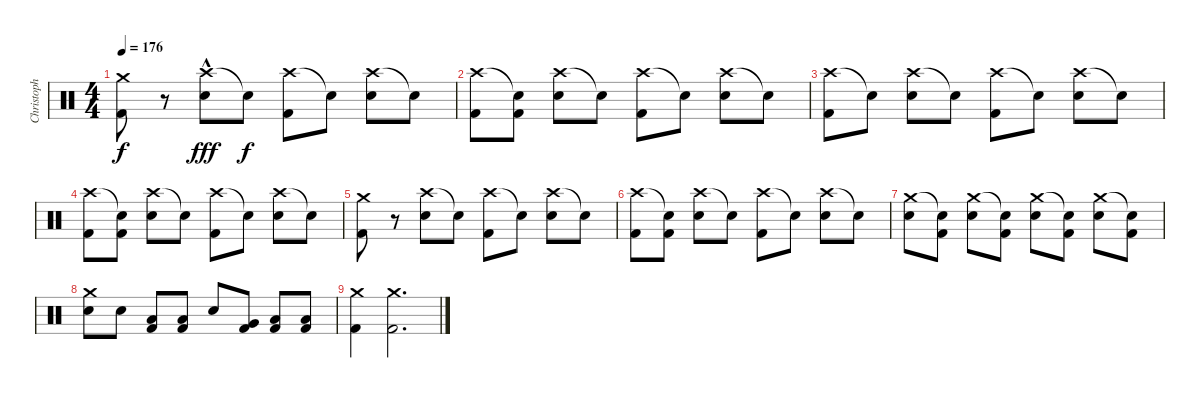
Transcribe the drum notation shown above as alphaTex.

\track ("Christoph" "Christoph") {instrument percussion}
\staff {score}
\articulation defaults
\ts (4 4)
\tempo 176
\clef neutral
\ks c
("Crash medium (hit)" "Kick (hit) 2").8{dy f} r.8 ("Crash high (hit)"{hac} "Snare (hit) 2").8{dy fff} "Snare (hit)"{t}.8{dy f} ("Crash high (hit)" "Kick (hit) 2").8 "Snare (hit)"{t}.8 ("Crash high (hit)" "Snare (hit) 2").8 "Snare (hit)"{t}.8 |
("Crash high (hit)" "Kick (hit) 2").8 ("Snare (hit)"{t} "Kick (hit) 2").8 ("Crash high (hit)" "Snare (hit) 2").8 "Snare (hit)"{t}.8 ("Crash high (hit)" "Kick (hit) 2").8 "Snare (hit)"{t}.8 ("Crash high (hit)" "Snare (hit) 2").8 "Snare (hit)"{t}.8 |
("Crash high (hit)" "Kick (hit) 2").8 "Snare (hit)"{t}.8 ("Crash high (hit)" "Snare (hit) 2").8 "Snare (hit)"{t}.8 ("Crash high (hit)" "Kick (hit) 2").8 "Snare (hit)"{t}.8 ("Crash high (hit)" "Snare (hit) 2").8 "Snare (hit)"{t}.8 |
("Crash high (hit)" "Kick (hit) 2").8 ("Snare (hit)"{t} "Kick (hit) 2").8 ("Crash high (hit)" "Snare (hit) 2").8 "Snare (hit)"{t}.8 ("Crash high (hit)" "Kick (hit) 2").8 "Snare (hit)"{t}.8 ("Crash high (hit)" "Snare (hit) 2").8 "Snare (hit)"{t}.8 |
("Crash medium (hit)" "Kick (hit) 2").8 r.8 ("Crash high (hit)" "Snare (hit) 2").8 "Snare (hit)"{t}.8 ("Crash high (hit)" "Kick (hit) 2").8 "Snare (hit)"{t}.8 ("Crash high (hit)" "Snare (hit) 2").8 "Snare (hit)"{t}.8 |
("Crash high (hit)" "Kick (hit) 2").8 ("Snare (hit)"{t} "Kick (hit) 2").8 ("Crash high (hit)" "Snare (hit) 2").8 "Snare (hit)"{t}.8 ("Crash high (hit)" "Kick (hit) 2").8 "Snare (hit)"{t}.8 ("Crash high (hit)" "Snare (hit) 2").8 "Snare (hit)"{t}.8 |
("Crash medium (hit)" "Snare (hit) 2").8 ("Snare (hit)"{t} "Kick (hit) 2").8 ("Crash medium (hit)" "Snare (hit) 2").8 ("Snare (hit)"{t} "Kick (hit) 2").8 ("Crash medium (hit)" "Snare (hit) 2").8 ("Snare (hit)"{t} "Kick (hit) 2").8 ("Crash medium (hit)" "Snare (hit) 2").8 ("Snare (hit)"{t} "Kick (hit) 2").8 |
("Crash medium (hit)" "Snare (hit) 2").8 "Snare (hit) 2".8 ("Low Tom (hit)" "Kick (hit) 2").8 ("Low Tom (hit)" "Kick (hit) 2").8 "Snare (hit) 2".8 ("Very Low Tom (hit)" "Kick (hit) 2").8 ("Low Floor Tom (hit)" "Kick (hit) 2").8 ("Low Floor Tom (hit)" "Kick (hit) 2").8 |
("Crash medium (hit)" "Kick (hit) 2").4 ("Crash medium (hit)" "Kick (hit) 2").2{d}
